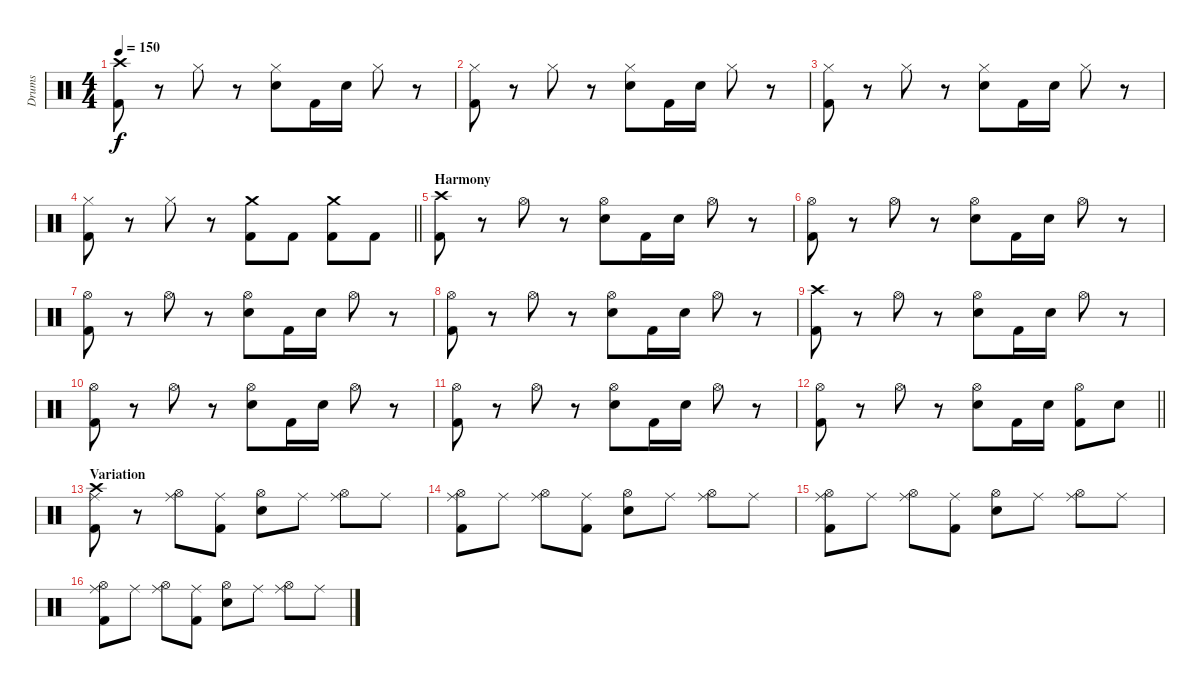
\track ("Drums" "Drums") {instrument percussion}
\staff {score}
\articulation defaults
\ts (4 4)
\tempo 150
\clef neutral
\ks c
("Crash high (hit)" "Kick (hit) 2").8{dy f} r.8 "Hi-Hat (closed)".8 r.8 ("Hi-Hat (closed)" "Electric Snare (hit)").8 "Kick (hit) 2".16 "Electric Snare (hit)".16 "Hi-Hat (closed)".8 r.8 |
("Hi-Hat (closed)" "Kick (hit) 2").8 r.8 "Hi-Hat (closed)".8 r.8 ("Hi-Hat (closed)" "Electric Snare (hit)").8 "Kick (hit) 2".16 "Electric Snare (hit)".16 "Hi-Hat (closed)".8 r.8 |
("Hi-Hat (closed)" "Kick (hit) 2").8 r.8 "Hi-Hat (closed)".8 r.8 ("Hi-Hat (closed)" "Electric Snare (hit)").8 "Kick (hit) 2".16 "Electric Snare (hit)".16 "Hi-Hat (closed)".8 r.8 |
\barLineRight lightlight
("Hi-Hat (closed)" "Kick (hit) 2").8 r.8 "Hi-Hat (closed)".8 r.8 ("Crash medium (hit)" "Kick (hit) 2").8 "Kick (hit) 2".8 ("Crash medium (hit)" "Kick (hit) 2").8 "Kick (hit) 2".8 |
\section ("" "Harmony")
("Crash high (hit)" "Kick (hit) 2").8 r.8 "Hi-Hat (open)".8 r.8 ("Hi-Hat (open)" "Electric Snare (hit)").8 "Kick (hit) 2".16 "Electric Snare (hit)".16 "Hi-Hat (open)".8 r.8 |
("Hi-Hat (open)" "Kick (hit) 2").8 r.8 "Hi-Hat (open)".8 r.8 ("Hi-Hat (open)" "Electric Snare (hit)").8 "Kick (hit) 2".16 "Electric Snare (hit)".16 "Hi-Hat (open)".8 r.8 |
("Hi-Hat (open)" "Kick (hit) 2").8 r.8 "Hi-Hat (open)".8 r.8 ("Hi-Hat (open)" "Electric Snare (hit)").8 "Kick (hit) 2".16 "Electric Snare (hit)".16 "Hi-Hat (open)".8 r.8 |
("Hi-Hat (open)" "Kick (hit) 2").8 r.8 "Hi-Hat (open)".8 r.8 ("Hi-Hat (open)" "Electric Snare (hit)").8 "Kick (hit) 2".16 "Electric Snare (hit)".16 "Hi-Hat (open)".8 r.8 |
("Crash high (hit)" "Kick (hit) 2").8 r.8 "Hi-Hat (open)".8 r.8 ("Hi-Hat (open)" "Electric Snare (hit)").8 "Kick (hit) 2".16 "Electric Snare (hit)".16 "Hi-Hat (open)".8 r.8 |
("Hi-Hat (open)" "Kick (hit) 2").8 r.8 "Hi-Hat (open)".8 r.8 ("Hi-Hat (open)" "Electric Snare (hit)").8 "Kick (hit) 2".16 "Electric Snare (hit)".16 "Hi-Hat (open)".8 r.8 |
("Hi-Hat (open)" "Kick (hit) 2").8 r.8 "Hi-Hat (open)".8 r.8 ("Hi-Hat (open)" "Electric Snare (hit)").8 "Kick (hit) 2".16 "Electric Snare (hit)".16 "Hi-Hat (open)".8 r.8 |
\barLineRight lightlight
("Hi-Hat (open)" "Kick (hit) 2").8 r.8 "Hi-Hat (open)".8 r.8 ("Hi-Hat (open)" "Electric Snare (hit)").8 "Kick (hit) 2".16 "Electric Snare (hit)".16 ("Hi-Hat (open)" "Kick (hit) 2").8 "Electric Snare (hit)".8 |
\section ("" "Variation")
("Crash high (hit)" "Ride (middle)" "Kick (hit) 2").8 r.8 ("Hi-Hat (open)" "Ride (middle)").8 ("Ride (middle)" "Kick (hit) 2").8 ("Hi-Hat (open)" "Electric Snare (hit)").8 "Ride (middle)".8 ("Hi-Hat (open)" "Ride (middle)").8 "Ride (middle)".8 |
("Hi-Hat (open)" "Ride (middle)" "Kick (hit) 2").8 "Ride (middle)".8 ("Hi-Hat (open)" "Ride (middle)").8 ("Ride (middle)" "Kick (hit) 2").8 ("Hi-Hat (open)" "Electric Snare (hit)").8 "Ride (middle)".8 ("Hi-Hat (open)" "Ride (middle)").8 "Ride (middle)".8 |
("Hi-Hat (open)" "Ride (middle)" "Kick (hit) 2").8 "Ride (middle)".8 ("Hi-Hat (open)" "Ride (middle)").8 ("Ride (middle)" "Kick (hit) 2").8 ("Hi-Hat (open)" "Electric Snare (hit)").8 "Ride (middle)".8 ("Hi-Hat (open)" "Ride (middle)").8 "Ride (middle)".8 |
("Hi-Hat (open)" "Ride (middle)" "Kick (hit) 2").8 "Ride (middle)".8 ("Hi-Hat (open)" "Ride (middle)").8 ("Ride (middle)" "Kick (hit) 2").8 ("Hi-Hat (open)" "Electric Snare (hit)").8 "Ride (middle)".8 ("Hi-Hat (open)" "Ride (middle)").8 "Ride (middle)".8
